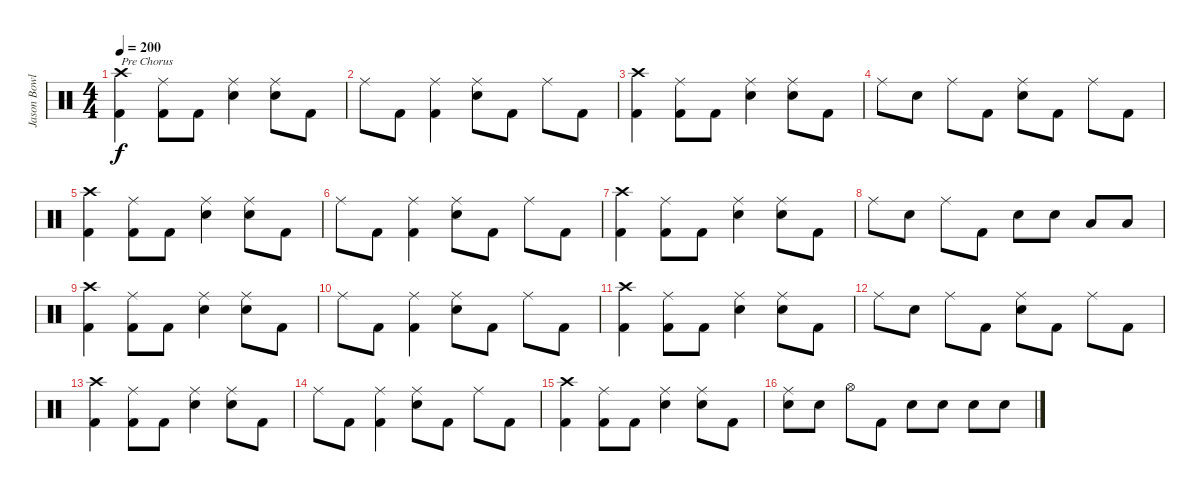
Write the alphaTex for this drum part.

\track ("Jason Bowld" "Jason Bowl") {instrument percussion}
\staff {score}
\articulation defaults
\ts (4 4)
\tempo 200
\clef neutral
\ks c
("Crash high (hit)" "Kick (hit) 2").4{txt "Pre Chorus" dy f} ("Ride (middle)" "Kick (hit) 2").8 "Kick (hit) 2".8 ("Ride (middle)" "Snare (hit) 2").4 ("Ride (middle)" "Snare (hit) 2").8 "Kick (hit) 2".8 |
"Ride (middle)".8 "Kick (hit) 2".8 ("Ride (middle)" "Kick (hit) 2").4 ("Ride (middle)" "Snare (hit) 2").8 "Kick (hit) 2".8 "Ride (middle)".8 "Kick (hit) 2".8 |
("Crash high (hit)" "Kick (hit) 2").4 ("Ride (middle)" "Kick (hit) 2").8 "Kick (hit) 2".8 ("Ride (middle)" "Snare (hit) 2").4 ("Ride (middle)" "Snare (hit) 2").8 "Kick (hit) 2".8 |
"Ride (middle)".8 "Snare (hit) 2".8 "Ride (middle)".8 "Kick (hit) 2".8 ("Ride (middle)" "Snare (hit) 2").8 "Kick (hit) 2".8 "Ride (middle)".8 "Kick (hit) 2".8 |
("Crash high (hit)" "Kick (hit) 2").4 ("Ride (middle)" "Kick (hit) 2").8 "Kick (hit) 2".8 ("Ride (middle)" "Snare (hit) 2").4 ("Ride (middle)" "Snare (hit) 2").8 "Kick (hit) 2".8 |
"Ride (middle)".8 "Kick (hit) 2".8 ("Ride (middle)" "Kick (hit) 2").4 ("Ride (middle)" "Snare (hit) 2").8 "Kick (hit) 2".8 "Ride (middle)".8 "Kick (hit) 2".8 |
("Crash high (hit)" "Kick (hit) 2").4 ("Ride (middle)" "Kick (hit) 2").8 "Kick (hit) 2".8 ("Ride (middle)" "Snare (hit) 2").4 ("Ride (middle)" "Snare (hit) 2").8 "Kick (hit) 2".8 |
"Ride (middle)".8 "Snare (hit) 2".8 "Ride (middle)".8 "Kick (hit) 2".8 "Snare (hit) 2".8 "Snare (hit) 2".8 "Low Tom (hit)".8 "Low Tom (hit)".8 |
("Crash high (hit)" "Kick (hit) 2").4 ("Ride (middle)" "Kick (hit) 2").8 "Kick (hit) 2".8 ("Ride (middle)" "Snare (hit) 2").4 ("Ride (middle)" "Snare (hit) 2").8 "Kick (hit) 2".8 |
"Ride (middle)".8 "Kick (hit) 2".8 ("Ride (middle)" "Kick (hit) 2").4 ("Ride (middle)" "Snare (hit) 2").8 "Kick (hit) 2".8 "Ride (middle)".8 "Kick (hit) 2".8 |
("Crash high (hit)" "Kick (hit) 2").4 ("Ride (middle)" "Kick (hit) 2").8 "Kick (hit) 2".8 ("Ride (middle)" "Snare (hit) 2").4 ("Ride (middle)" "Snare (hit) 2").8 "Kick (hit) 2".8 |
"Ride (middle)".8 "Snare (hit) 2".8 "Ride (middle)".8 "Kick (hit) 2".8 ("Ride (middle)" "Snare (hit) 2").8 "Kick (hit) 2".8 "Ride (middle)".8 "Kick (hit) 2".8 |
("Crash high (hit)" "Kick (hit) 2").4 ("Ride (middle)" "Kick (hit) 2").8 "Kick (hit) 2".8 ("Ride (middle)" "Snare (hit) 2").4 ("Ride (middle)" "Snare (hit) 2").8 "Kick (hit) 2".8 |
"Ride (middle)".8 "Kick (hit) 2".8 ("Ride (middle)" "Kick (hit) 2").4 ("Ride (middle)" "Snare (hit) 2").8 "Kick (hit) 2".8 "Ride (middle)".8 "Kick (hit) 2".8 |
("Crash high (hit)" "Kick (hit) 2").4 ("Ride (middle)" "Kick (hit) 2").8 "Kick (hit) 2".8 ("Ride (middle)" "Snare (hit) 2").4 ("Ride (middle)" "Snare (hit) 2").8 "Kick (hit) 2".8 |
("Ride (middle)" "Snare (hit) 2").8 "Snare (hit) 2".8 "Hi-Hat (open)".8 "Kick (hit) 2".8 "Snare (hit) 2".8 "Snare (hit) 2".8 "Snare (hit) 2".8 "Snare (hit) 2".8
